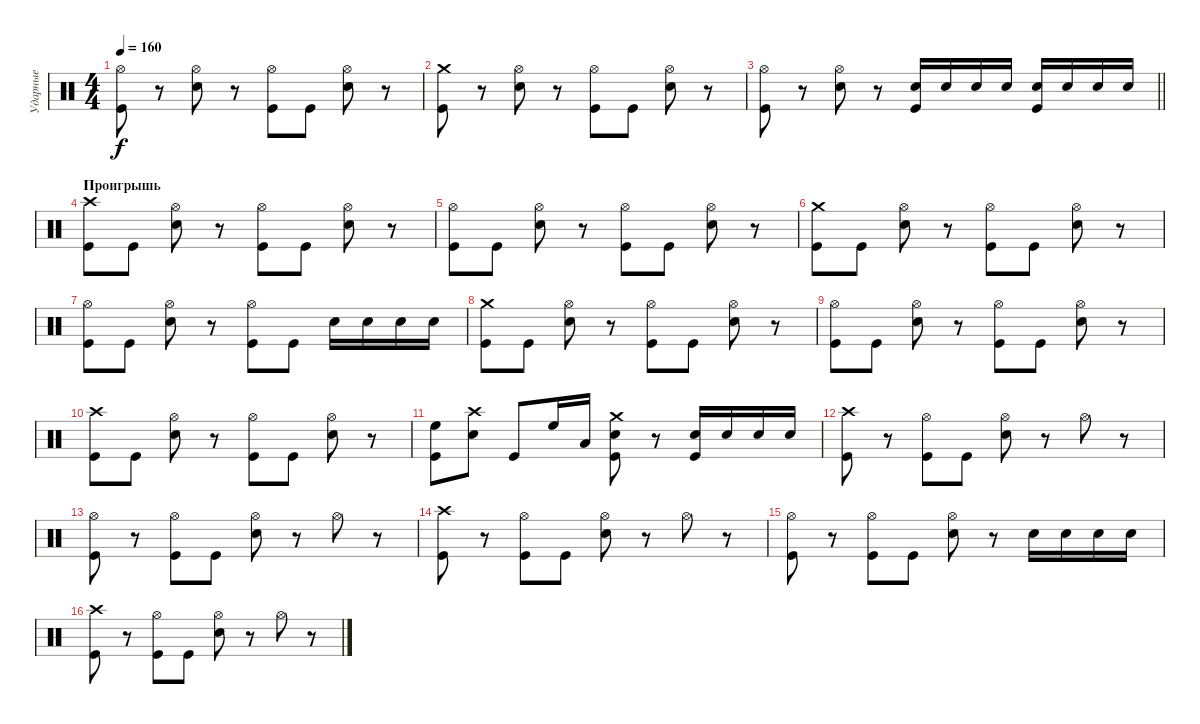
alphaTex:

\track ("Ударные" "Ударные") {instrument percussion}
\staff {score}
\articulation defaults
\ts (4 4)
\tempo 160
\clef neutral
\ks c
("Kick (hit)" "Hi-Hat (open)").8{dy f} r.8 ("Snare (hit) 2" "Hi-Hat (open)").8 r.8 ("Kick (hit)" "Hi-Hat (open)").8 "Kick (hit)".8 ("Snare (hit) 2" "Hi-Hat (open)").8 r.8 |
("Kick (hit)" "Crash medium (hit)").8 r.8 ("Snare (hit) 2" "Hi-Hat (open)").8 r.8 ("Kick (hit)" "Hi-Hat (open)").8 "Kick (hit)".8 ("Snare (hit) 2" "Hi-Hat (open)").8 r.8 |
\barLineRight lightlight
("Kick (hit)" "Hi-Hat (open)").8 r.8 ("Snare (hit) 2" "Hi-Hat (open)").8 r.8 ("Snare (hit) 2" "Kick (hit)").16 "Snare (hit) 2".16 "Snare (hit) 2".16 "Snare (hit) 2".16 ("Snare (hit) 2" "Kick (hit)").16 "Snare (hit) 2".16 "Snare (hit) 2".16 "Snare (hit) 2".16 |
\section ("" "Проигрышь")
("Kick (hit)" "Crash high (hit)").8 "Kick (hit)".8 ("Snare (hit) 2" "Hi-Hat (open)").8 r.8 ("Kick (hit)" "Hi-Hat (open)").8 "Kick (hit)".8 ("Snare (hit) 2" "Hi-Hat (open)").8 r.8 |
("Kick (hit)" "Hi-Hat (open)").8 "Kick (hit)".8 ("Snare (hit) 2" "Hi-Hat (open)").8 r.8 ("Kick (hit)" "Hi-Hat (open)").8 "Kick (hit)".8 ("Snare (hit) 2" "Hi-Hat (open)").8 r.8 |
("Kick (hit)" "Crash medium (hit)").8 "Kick (hit)".8 ("Snare (hit) 2" "Hi-Hat (open)").8 r.8 ("Kick (hit)" "Hi-Hat (open)").8 "Kick (hit)".8 ("Snare (hit) 2" "Hi-Hat (open)").8 r.8 |
("Kick (hit)" "Hi-Hat (open)").8 "Kick (hit)".8 ("Snare (hit) 2" "Hi-Hat (open)").8 r.8 ("Kick (hit)" "Hi-Hat (open)").8 "Kick (hit)".8 "Snare (hit) 2".16 "Snare (hit) 2".16 "Snare (hit) 2".16 "Snare (hit) 2".16 |
("Kick (hit)" "Crash medium (hit)").8 "Kick (hit)".8 ("Snare (hit) 2" "Hi-Hat (open)").8 r.8 ("Kick (hit)" "Hi-Hat (open)").8 "Kick (hit)".8 ("Snare (hit) 2" "Hi-Hat (open)").8 r.8 |
("Kick (hit)" "Hi-Hat (open)").8 "Kick (hit)".8 ("Snare (hit) 2" "Hi-Hat (open)").8 r.8 ("Kick (hit)" "Hi-Hat (open)").8 "Kick (hit)".8 ("Snare (hit) 2" "Hi-Hat (open)").8 r.8 |
("Kick (hit)" "Crash high (hit)").8 "Kick (hit)".8 ("Snare (hit) 2" "Hi-Hat (open)").8 r.8 ("Kick (hit)" "Hi-Hat (open)").8 "Kick (hit)".8 ("Snare (hit) 2" "Hi-Hat (open)").8 r.8 |
("High Floor Tom (hit)" "Kick (hit)").8 ("Snare (hit) 2" "Crash high (hit)").8 "Kick (hit)".8 "High Floor Tom (hit)".16 "Low Tom (hit)".16 ("Snare (hit) 2" "Kick (hit)" "Crash medium (hit)").8 r.8 ("Snare (hit) 2" "Kick (hit)").16 "Snare (hit) 2".16 "Snare (hit) 2".16 "Snare (hit) 2".16 |
("Kick (hit)" "Crash high (hit)").8 r.8 ("Kick (hit)" "Hi-Hat (open)").8 "Kick (hit)".8 ("Snare (hit) 2" "Hi-Hat (open)").8 r.8 "Hi-Hat (open)".8 r.8 |
("Kick (hit)" "Hi-Hat (open)").8 r.8 ("Kick (hit)" "Hi-Hat (open)").8 "Kick (hit)".8 ("Snare (hit) 2" "Hi-Hat (open)").8 r.8 "Hi-Hat (open)".8 r.8 |
("Kick (hit)" "Crash high (hit)").8 r.8 ("Kick (hit)" "Hi-Hat (open)").8 "Kick (hit)".8 ("Snare (hit) 2" "Hi-Hat (open)").8 r.8 "Hi-Hat (open)".8 r.8 |
("Kick (hit)" "Hi-Hat (open)").8 r.8 ("Kick (hit)" "Hi-Hat (open)").8 "Kick (hit)".8 ("Snare (hit) 2" "Hi-Hat (open)").8 r.8 "Snare (hit) 2".16 "Snare (hit) 2".16 "Snare (hit) 2".16 "Snare (hit) 2".16 |
("Kick (hit)" "Crash high (hit)").8 r.8 ("Kick (hit)" "Hi-Hat (open)").8 "Kick (hit)".8 ("Snare (hit) 2" "Hi-Hat (open)").8 r.8 "Hi-Hat (open)".8 r.8
